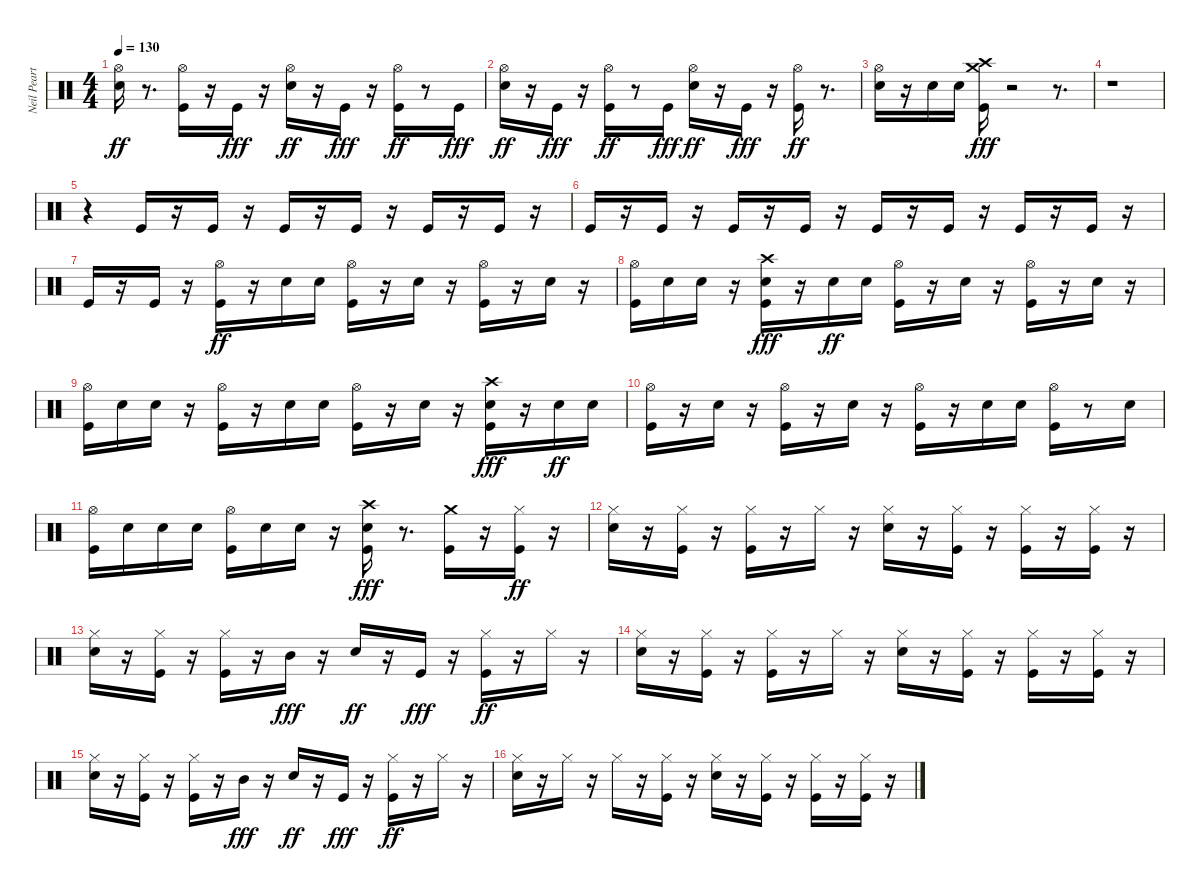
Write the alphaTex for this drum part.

\track ("Neil Peart" "Neil Peart") {instrument percussion}
\staff {score}
\articulation defaults
\ts (4 4)
\tempo 130
\clef neutral
\ks c
("Snare (hit) 2" "Hi-Hat (open)").16{dy ff} r.8{d} ("Kick (hit)" "Hi-Hat (open)").16 r.16 "Kick (hit)".16{dy fff} r.16 ("Snare (hit) 2" "Hi-Hat (open)").16{dy ff} r.16 "Kick (hit)".16{dy fff} r.16 ("Kick (hit)" "Hi-Hat (open)").16{dy ff} r.8 "Kick (hit)".16{dy fff} |
("Snare (hit) 2" "Hi-Hat (open)").16{dy ff} r.16 "Kick (hit)".16{dy fff} r.16 ("Kick (hit)" "Hi-Hat (open)").16{dy ff} r.8 "Kick (hit)".16{dy fff} ("Snare (hit) 2" "Hi-Hat (open)").16{dy ff} r.16 "Kick (hit)".16{dy fff} r.16 ("Kick (hit)" "Hi-Hat (open)").16{dy ff} r.8{d} |
("Snare (hit) 2" "Hi-Hat (open)").16 r.16 "Snare (hit) 2".16 "Snare (hit) 2".16 ("Crash medium (hit)" "Kick (hit)" "Crash high (hit)").16{dy fff} r.2 r.8{d} |
r.1 |
r.4 "Kick (hit)".16 r.16 "Kick (hit)".16 r.16 "Kick (hit)".16 r.16 "Kick (hit)".16 r.16 "Kick (hit)".16 r.16 "Kick (hit)".16 r.16 |
"Kick (hit)".16 r.16 "Kick (hit)".16 r.16 "Kick (hit)".16 r.16 "Kick (hit)".16 r.16 "Kick (hit)".16 r.16 "Kick (hit)".16 r.16 "Kick (hit)".16 r.16 "Kick (hit)".16 r.16 |
"Kick (hit)".16 r.16 "Kick (hit)".16 r.16 ("Kick (hit)" "Hi-Hat (open)").16{dy ff} r.16 "Snare (hit) 2".16 "Snare (hit) 2".16 ("Kick (hit)" "Hi-Hat (open)").16 r.16 "Snare (hit) 2".16 r.16 ("Kick (hit)" "Hi-Hat (open)").16 r.16 "Snare (hit) 2".16 r.16 |
("Kick (hit)" "Hi-Hat (open)").16 "Snare (hit) 2".16 "Snare (hit) 2".16 r.16 ("Kick (hit)" "Snare (hit) 2" "Crash high (hit)").16{dy fff} r.16 "Snare (hit) 2".16{dy ff} "Snare (hit) 2".16 ("Kick (hit)" "Hi-Hat (open)").16 r.16 "Snare (hit) 2".16 r.16 ("Kick (hit)" "Hi-Hat (open)").16 r.16 "Snare (hit) 2".16 r.16 |
("Kick (hit)" "Hi-Hat (open)").16 "Snare (hit) 2".16 "Snare (hit) 2".16 r.16 ("Kick (hit)" "Hi-Hat (open)").16 r.16 "Snare (hit) 2".16 "Snare (hit) 2".16 ("Kick (hit)" "Hi-Hat (open)").16 r.16 "Snare (hit) 2".16 r.16 ("Kick (hit)" "Snare (hit) 2" "Crash high (hit)").16{dy fff} r.16 "Snare (hit) 2".16{dy ff} "Snare (hit) 2".16 |
("Kick (hit)" "Hi-Hat (open)").16 r.16 "Snare (hit) 2".16 r.16 ("Kick (hit)" "Hi-Hat (open)").16 r.16 "Snare (hit) 2".16 r.16 ("Kick (hit)" "Hi-Hat (open)").16 r.16 "Snare (hit) 2".16 "Snare (hit) 2".16 ("Kick (hit)" "Hi-Hat (open)").16 r.8 "Snare (hit) 2".16 |
("Kick (hit)" "Hi-Hat (open)").16 "Snare (hit) 2".16 "Snare (hit) 2".16 "Snare (hit) 2".16 ("Kick (hit)" "Hi-Hat (open)").16 "Snare (hit) 2".16 "Snare (hit) 2".16 r.16 ("Kick (hit)" "Snare (hit) 2" "Crash high (hit)").16{dy fff} r.8{d} ("Crash medium (hit)" "Kick (hit)").16 r.16 ("Kick (hit)" "Hi-Hat (closed)").16{dy ff} r.16 |
("Snare (hit) 2" "Hi-Hat (closed)").16 r.16 ("Kick (hit)" "Hi-Hat (closed)").16 r.16 ("Kick (hit)" "Hi-Hat (closed)").16 r.16 "Hi-Hat (closed)".16 r.16 ("Snare (hit) 2" "Hi-Hat (closed)").16 r.16 ("Kick (hit)" "Hi-Hat (closed)").16 r.16 ("Kick (hit)" "Hi-Hat (closed)").16 r.16 ("Kick (hit)" "Hi-Hat (closed)").16 r.16 |
("Snare (hit) 2" "Hi-Hat (closed)").16 r.16 ("Kick (hit)" "Hi-Hat (closed)").16 r.16 ("Kick (hit)" "Hi-Hat (closed)").16 r.16 "Mid Tom (hit)".16{dy fff} r.16 "Snare (hit) 2".16{dy ff} r.16 "Kick (hit)".16{dy fff} r.16 ("Kick (hit)" "Hi-Hat (closed)").16{dy ff} r.16 "Hi-Hat (closed)".16 r.16 |
("Snare (hit) 2" "Hi-Hat (closed)").16 r.16 ("Kick (hit)" "Hi-Hat (closed)").16 r.16 ("Kick (hit)" "Hi-Hat (closed)").16 r.16 "Hi-Hat (closed)".16 r.16 ("Snare (hit) 2" "Hi-Hat (closed)").16 r.16 ("Kick (hit)" "Hi-Hat (closed)").16 r.16 ("Kick (hit)" "Hi-Hat (closed)").16 r.16 ("Kick (hit)" "Hi-Hat (closed)").16 r.16 |
("Snare (hit) 2" "Hi-Hat (closed)").16 r.16 ("Kick (hit)" "Hi-Hat (closed)").16 r.16 ("Kick (hit)" "Hi-Hat (closed)").16 r.16 "Mid Tom (hit)".16{dy fff} r.16 "Snare (hit) 2".16{dy ff} r.16 "Kick (hit)".16{dy fff} r.16 ("Kick (hit)" "Hi-Hat (closed)").16{dy ff} r.16 "Hi-Hat (closed)".16 r.16 |
("Snare (hit) 2" "Hi-Hat (closed)").16 r.16 "Hi-Hat (closed)".16 r.16 "Hi-Hat (closed)".16 r.16 ("Kick (hit)" "Hi-Hat (closed)").16 r.16 ("Snare (hit) 2" "Hi-Hat (closed)").16 r.16 ("Kick (hit)" "Hi-Hat (closed)").16 r.16 ("Kick (hit)" "Hi-Hat (closed)").16 r.16 ("Kick (hit)" "Hi-Hat (closed)").16 r.16
